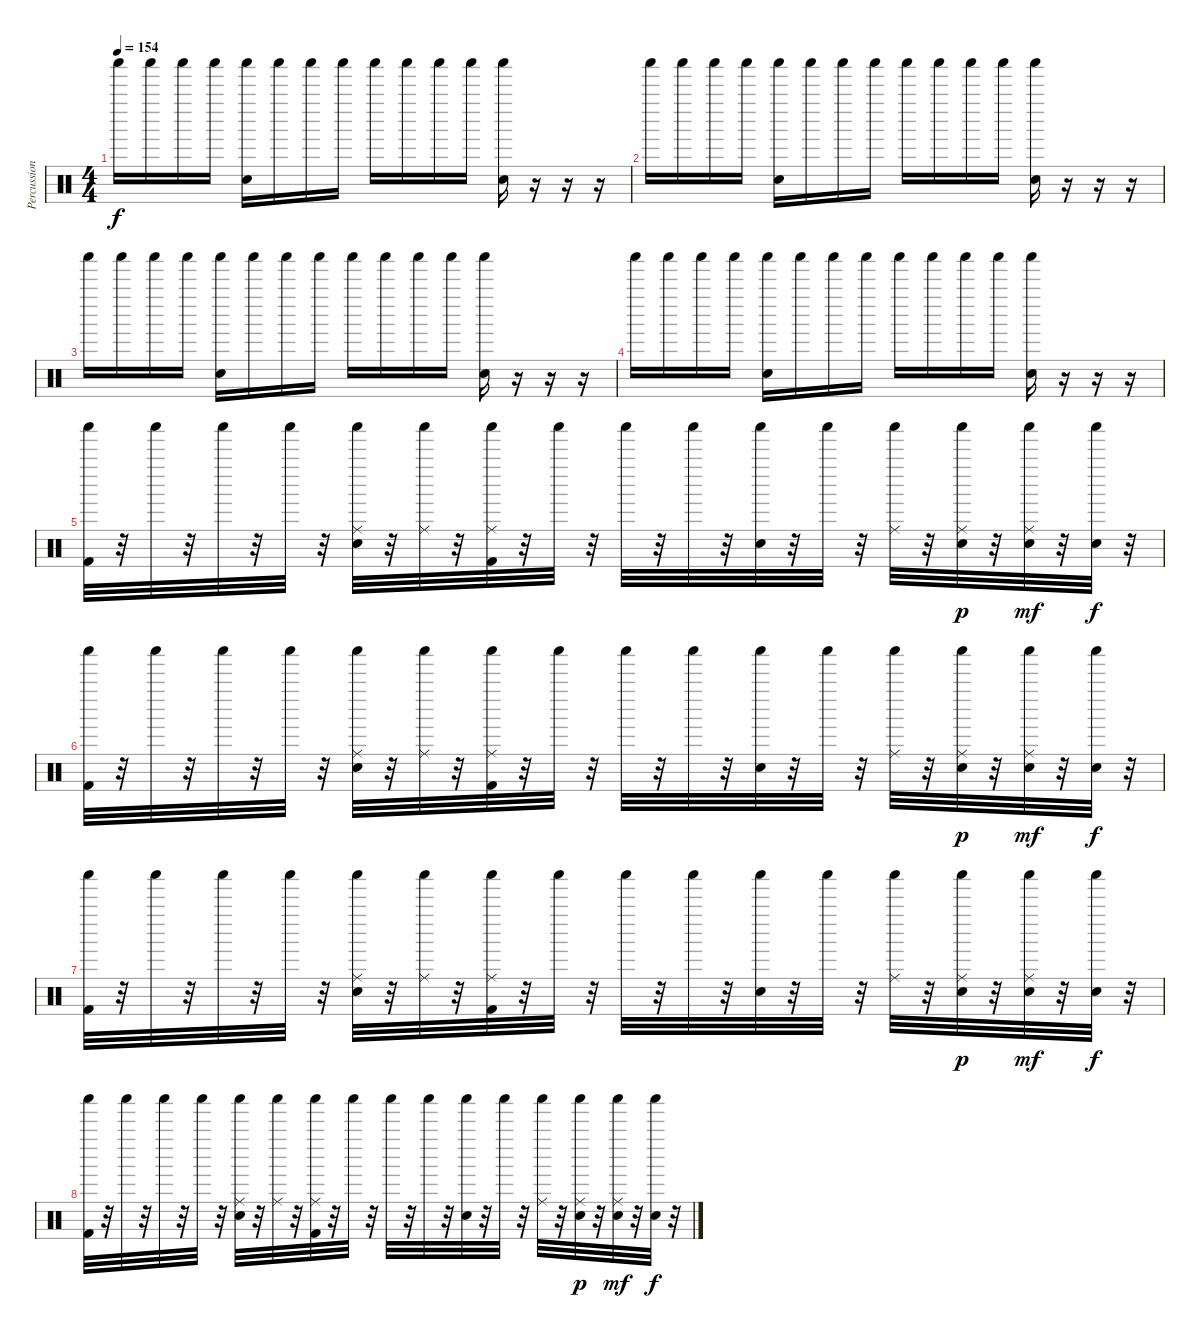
\track ("Percussion" "Percussion") {instrument percussion}
\staff {score}
\articulation defaults
\ts (4 4)
\tempo 154
\clef neutral
\ks c "Shaker (hit)".16{dy f} "Shaker (hit)".16 "Shaker (hit)".16 "Shaker (hit)".16
("Shaker (hit)" "Snare (hit) 2").16 "Shaker (hit)".16 "Shaker (hit)".16 "Shaker (hit)".16 "Shaker (hit)".16 "Shaker (hit)".16 "Shaker (hit)".16 "Shaker (hit)".16 ("Shaker (hit)" "Snare (hit) 2").16 r.16 r.16 r.16 |
"Shaker (hit)".16 "Shaker (hit)".16 "Shaker (hit)".16 "Shaker (hit)".16 ("Shaker (hit)" "Snare (hit) 2").16 "Shaker (hit)".16 "Shaker (hit)".16 "Shaker (hit)".16 "Shaker (hit)".16 "Shaker (hit)".16 "Shaker (hit)".16 "Shaker (hit)".16 ("Shaker (hit)" "Snare (hit) 2").16 r.16 r.16 r.16 |
"Shaker (hit)".16 "Shaker (hit)".16 "Shaker (hit)".16 "Shaker (hit)".16 ("Shaker (hit)" "Snare (hit) 2").16 "Shaker (hit)".16 "Shaker (hit)".16 "Shaker (hit)".16 "Shaker (hit)".16 "Shaker (hit)".16 "Shaker (hit)".16 "Shaker (hit)".16 ("Shaker (hit)" "Snare (hit) 2").16 r.16 r.16 r.16 |
"Shaker (hit)".16 "Shaker (hit)".16 "Shaker (hit)".16 "Shaker (hit)".16 ("Shaker (hit)" "Snare (hit) 2").16 "Shaker (hit)".16 "Shaker (hit)".16 "Shaker (hit)".16 "Shaker (hit)".16 "Shaker (hit)".16 "Shaker (hit)".16 "Shaker (hit)".16 ("Shaker (hit)" "Snare (hit) 2").16 r.16 r.16 r.16 |
("Shaker (hit)" "Kick (hit) 2").32 r.32 "Shaker (hit)".32 r.32 "Shaker (hit)".32 r.32 "Shaker (hit)".32 r.32 ("Shaker (hit)" "Snare (hit) 2" "Ride (middle)").32 r.32 ("Shaker (hit)" "Ride (middle)").32 r.32 ("Shaker (hit)" "Kick (hit) 2" "Ride (middle)").32 r.32 "Shaker (hit)".32 r.32 "Shaker (hit)".32 r.32 "Shaker (hit)".32 r.32 ("Shaker (hit)" "Snare (hit) 2").32 r.32 "Shaker (hit)".32 r.32 ("Shaker (hit)" "Ride (middle)").32 r.32 ("Shaker (hit)" "Snare (hit) 2" "Ride (middle)").32{dy p} r.32 ("Shaker (hit)" "Snare (hit) 2" "Ride (middle)").32{dy mf} r.32 ("Shaker (hit)" "Snare (hit) 2").32{dy f} r.32 |
("Shaker (hit)" "Kick (hit) 2").32 r.32 "Shaker (hit)".32 r.32 "Shaker (hit)".32 r.32 "Shaker (hit)".32 r.32 ("Shaker (hit)" "Snare (hit) 2" "Ride (middle)").32 r.32 ("Shaker (hit)" "Ride (middle)").32 r.32 ("Shaker (hit)" "Kick (hit) 2" "Ride (middle)").32 r.32 "Shaker (hit)".32 r.32 "Shaker (hit)".32 r.32 "Shaker (hit)".32 r.32 ("Shaker (hit)" "Snare (hit) 2").32 r.32 "Shaker (hit)".32 r.32 ("Shaker (hit)" "Ride (middle)").32 r.32 ("Shaker (hit)" "Snare (hit) 2" "Ride (middle)").32{dy p} r.32 ("Shaker (hit)" "Snare (hit) 2" "Ride (middle)").32{dy mf} r.32 ("Shaker (hit)" "Snare (hit) 2").32{dy f} r.32 |
("Shaker (hit)" "Kick (hit) 2").32 r.32 "Shaker (hit)".32 r.32 "Shaker (hit)".32 r.32 "Shaker (hit)".32 r.32 ("Shaker (hit)" "Snare (hit) 2" "Ride (middle)").32 r.32 ("Shaker (hit)" "Ride (middle)").32 r.32 ("Shaker (hit)" "Kick (hit) 2" "Ride (middle)").32 r.32 "Shaker (hit)".32 r.32 "Shaker (hit)".32 r.32 "Shaker (hit)".32 r.32 ("Shaker (hit)" "Snare (hit) 2").32 r.32 "Shaker (hit)".32 r.32 ("Shaker (hit)" "Ride (middle)").32 r.32 ("Shaker (hit)" "Snare (hit) 2" "Ride (middle)").32{dy p} r.32 ("Shaker (hit)" "Snare (hit) 2" "Ride (middle)").32{dy mf} r.32 ("Shaker (hit)" "Snare (hit) 2").32{dy f} r.32 |
("Shaker (hit)" "Kick (hit) 2").32 r.32 "Shaker (hit)".32 r.32 "Shaker (hit)".32 r.32 "Shaker (hit)".32 r.32 ("Shaker (hit)" "Snare (hit) 2" "Ride (middle)").32 r.32 ("Shaker (hit)" "Ride (middle)").32 r.32 ("Shaker (hit)" "Kick (hit) 2" "Ride (middle)").32 r.32 "Shaker (hit)".32 r.32 "Shaker (hit)".32 r.32 "Shaker (hit)".32 r.32 ("Shaker (hit)" "Snare (hit) 2").32 r.32 "Shaker (hit)".32 r.32 ("Shaker (hit)" "Ride (middle)").32 r.32 ("Shaker (hit)" "Snare (hit) 2" "Ride (middle)").32{dy p} r.32 ("Shaker (hit)" "Snare (hit) 2" "Ride (middle)").32{dy mf} r.32 ("Shaker (hit)" "Snare (hit) 2").32{dy f} r.32
